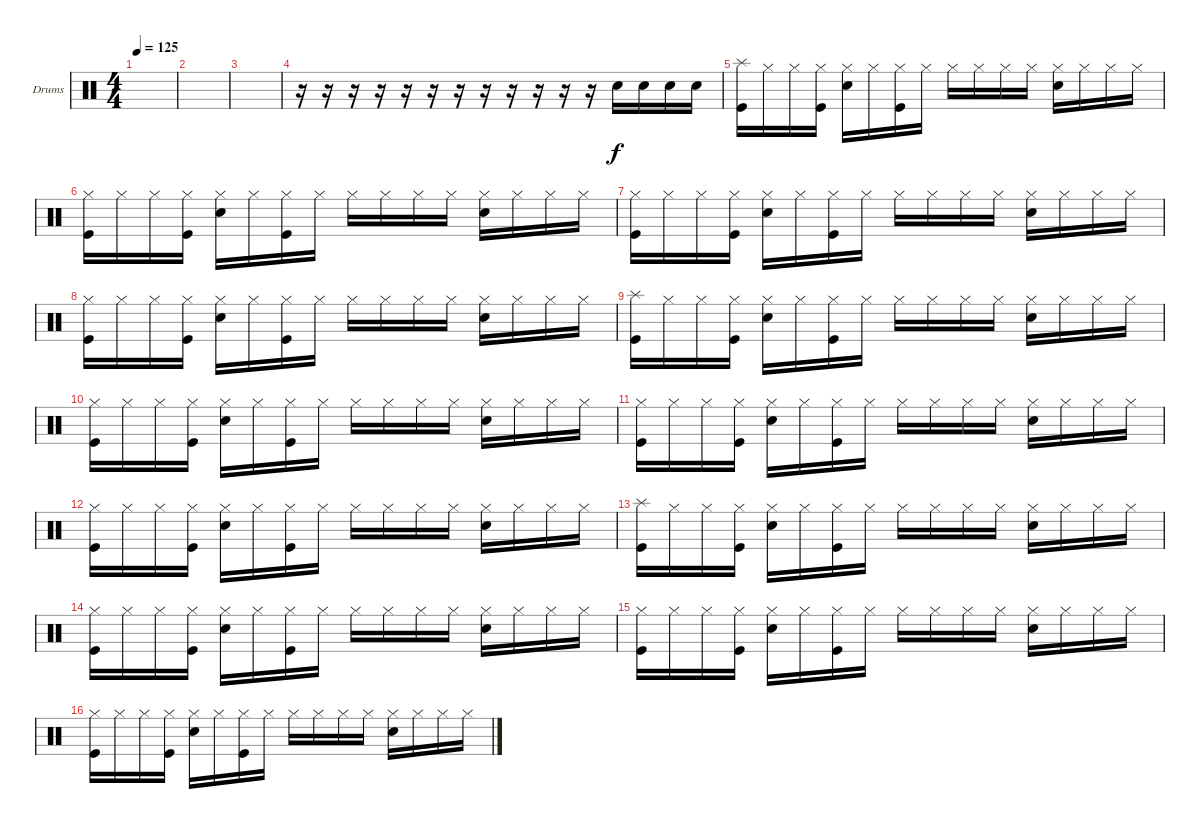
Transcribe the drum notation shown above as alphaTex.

\defaultSystemsLayout 4
\bracketExtendMode groupsimilarinstruments
\firstSystemTrackNameOrientation horizontal
\otherSystemsTrackNameOrientation horizontal
\track ("Ударные" "Drums") {instrument percussion}
\staff {score}
\articulation defaults
\ts (4 4)
\tempo 125
\clef neutral
\ks c
|
|
|
r.16 r.16 r.16 r.16 r.16 r.16 r.16 r.16 r.16 r.16 r.16 r.16 "Snare (hit) 2".16 "Snare (hit) 2".16 "Snare (hit) 2".16 "Snare (hit) 2".16 |
("Splash (hit)" "Kick (hit)").16 "Hi-Hat (closed)".16 "Hi-Hat (closed)".16 ("Hi-Hat (closed)" "Kick (hit)").16 ("Hi-Hat (closed)" "Snare (hit) 2").16 "Hi-Hat (closed)".16 ("Hi-Hat (closed)" "Kick (hit)").16 "Hi-Hat (closed)".16 "Hi-Hat (closed)".16 "Hi-Hat (closed)".16 "Hi-Hat (closed)".16 "Hi-Hat (closed)".16 ("Hi-Hat (closed)" "Snare (hit) 2").16 "Hi-Hat (closed)".16 "Hi-Hat (closed)".16 "Hi-Hat (closed)".16 |
("Kick (hit)" "Hi-Hat (closed)").16 "Hi-Hat (closed)".16 "Hi-Hat (closed)".16 ("Hi-Hat (closed)" "Kick (hit)").16 ("Hi-Hat (closed)" "Snare (hit) 2").16 "Hi-Hat (closed)".16 ("Hi-Hat (closed)" "Kick (hit)").16 "Hi-Hat (closed)".16 "Hi-Hat (closed)".16 "Hi-Hat (closed)".16 "Hi-Hat (closed)".16 "Hi-Hat (closed)".16 ("Hi-Hat (closed)" "Snare (hit) 2").16 "Hi-Hat (closed)".16 "Hi-Hat (closed)".16 "Hi-Hat (closed)".16 |
("Kick (hit)" "Hi-Hat (closed)").16 "Hi-Hat (closed)".16 "Hi-Hat (closed)".16 ("Hi-Hat (closed)" "Kick (hit)").16 ("Hi-Hat (closed)" "Snare (hit) 2").16 "Hi-Hat (closed)".16 ("Hi-Hat (closed)" "Kick (hit)").16 "Hi-Hat (closed)".16 "Hi-Hat (closed)".16 "Hi-Hat (closed)".16 "Hi-Hat (closed)".16 "Hi-Hat (closed)".16 ("Hi-Hat (closed)" "Snare (hit) 2").16 "Hi-Hat (closed)".16 "Hi-Hat (closed)".16 "Hi-Hat (closed)".16 |
("Kick (hit)" "Hi-Hat (closed)").16 "Hi-Hat (closed)".16 "Hi-Hat (closed)".16 ("Hi-Hat (closed)" "Kick (hit)").16 ("Hi-Hat (closed)" "Snare (hit) 2").16 "Hi-Hat (closed)".16 ("Hi-Hat (closed)" "Kick (hit)").16 "Hi-Hat (closed)".16 "Hi-Hat (closed)".16 "Hi-Hat (closed)".16 "Hi-Hat (closed)".16 "Hi-Hat (closed)".16 ("Hi-Hat (closed)" "Snare (hit) 2").16 "Hi-Hat (closed)".16 "Hi-Hat (closed)".16 "Hi-Hat (closed)".16 |
("Splash (hit)" "Kick (hit)").16 "Hi-Hat (closed)".16 "Hi-Hat (closed)".16 ("Hi-Hat (closed)" "Kick (hit)").16 ("Hi-Hat (closed)" "Snare (hit) 2").16 "Hi-Hat (closed)".16 ("Hi-Hat (closed)" "Kick (hit)").16 "Hi-Hat (closed)".16 "Hi-Hat (closed)".16 "Hi-Hat (closed)".16 "Hi-Hat (closed)".16 "Hi-Hat (closed)".16 ("Hi-Hat (closed)" "Snare (hit) 2").16 "Hi-Hat (closed)".16 "Hi-Hat (closed)".16 "Hi-Hat (closed)".16 |
("Kick (hit)" "Hi-Hat (closed)").16 "Hi-Hat (closed)".16 "Hi-Hat (closed)".16 ("Hi-Hat (closed)" "Kick (hit)").16 ("Hi-Hat (closed)" "Snare (hit) 2").16 "Hi-Hat (closed)".16 ("Hi-Hat (closed)" "Kick (hit)").16 "Hi-Hat (closed)".16 "Hi-Hat (closed)".16 "Hi-Hat (closed)".16 "Hi-Hat (closed)".16 "Hi-Hat (closed)".16 ("Hi-Hat (closed)" "Snare (hit) 2").16 "Hi-Hat (closed)".16 "Hi-Hat (closed)".16 "Hi-Hat (closed)".16 |
("Kick (hit)" "Hi-Hat (closed)").16 "Hi-Hat (closed)".16 "Hi-Hat (closed)".16 ("Hi-Hat (closed)" "Kick (hit)").16 ("Hi-Hat (closed)" "Snare (hit) 2").16 "Hi-Hat (closed)".16 ("Hi-Hat (closed)" "Kick (hit)").16 "Hi-Hat (closed)".16 "Hi-Hat (closed)".16 "Hi-Hat (closed)".16 "Hi-Hat (closed)".16 "Hi-Hat (closed)".16 ("Hi-Hat (closed)" "Snare (hit) 2").16 "Hi-Hat (closed)".16 "Hi-Hat (closed)".16 "Hi-Hat (closed)".16 |
("Kick (hit)" "Hi-Hat (closed)").16 "Hi-Hat (closed)".16 "Hi-Hat (closed)".16 ("Hi-Hat (closed)" "Kick (hit)").16 ("Hi-Hat (closed)" "Snare (hit) 2").16 "Hi-Hat (closed)".16 ("Hi-Hat (closed)" "Kick (hit)").16 "Hi-Hat (closed)".16 "Hi-Hat (closed)".16 "Hi-Hat (closed)".16 "Hi-Hat (closed)".16 "Hi-Hat (closed)".16 ("Hi-Hat (closed)" "Snare (hit) 2").16 "Hi-Hat (closed)".16 "Hi-Hat (closed)".16 "Hi-Hat (closed)".16 |
("Splash (hit)" "Kick (hit)").16 "Hi-Hat (closed)".16 "Hi-Hat (closed)".16 ("Hi-Hat (closed)" "Kick (hit)").16 ("Hi-Hat (closed)" "Snare (hit) 2").16 "Hi-Hat (closed)".16 ("Hi-Hat (closed)" "Kick (hit)").16 "Hi-Hat (closed)".16 "Hi-Hat (closed)".16 "Hi-Hat (closed)".16 "Hi-Hat (closed)".16 "Hi-Hat (closed)".16 ("Hi-Hat (closed)" "Snare (hit) 2").16 "Hi-Hat (closed)".16 "Hi-Hat (closed)".16 "Hi-Hat (closed)".16 |
("Kick (hit)" "Hi-Hat (closed)").16 "Hi-Hat (closed)".16 "Hi-Hat (closed)".16 ("Hi-Hat (closed)" "Kick (hit)").16 ("Hi-Hat (closed)" "Snare (hit) 2").16 "Hi-Hat (closed)".16 ("Hi-Hat (closed)" "Kick (hit)").16 "Hi-Hat (closed)".16 "Hi-Hat (closed)".16 "Hi-Hat (closed)".16 "Hi-Hat (closed)".16 "Hi-Hat (closed)".16 ("Hi-Hat (closed)" "Snare (hit) 2").16 "Hi-Hat (closed)".16 "Hi-Hat (closed)".16 "Hi-Hat (closed)".16 |
("Kick (hit)" "Hi-Hat (closed)").16 "Hi-Hat (closed)".16 "Hi-Hat (closed)".16 ("Hi-Hat (closed)" "Kick (hit)").16 ("Hi-Hat (closed)" "Snare (hit) 2").16 "Hi-Hat (closed)".16 ("Hi-Hat (closed)" "Kick (hit)").16 "Hi-Hat (closed)".16 "Hi-Hat (closed)".16 "Hi-Hat (closed)".16 "Hi-Hat (closed)".16 "Hi-Hat (closed)".16 ("Hi-Hat (closed)" "Snare (hit) 2").16 "Hi-Hat (closed)".16 "Hi-Hat (closed)".16 "Hi-Hat (closed)".16 |
("Kick (hit)" "Hi-Hat (closed)").16 "Hi-Hat (closed)".16 "Hi-Hat (closed)".16 ("Hi-Hat (closed)" "Kick (hit)").16 ("Hi-Hat (closed)" "Snare (hit) 2").16 "Hi-Hat (closed)".16 ("Hi-Hat (closed)" "Kick (hit)").16 "Hi-Hat (closed)".16 "Hi-Hat (closed)".16 "Hi-Hat (closed)".16 "Hi-Hat (closed)".16 "Hi-Hat (closed)".16 ("Hi-Hat (closed)" "Snare (hit) 2").16 "Hi-Hat (closed)".16 "Hi-Hat (closed)".16 "Hi-Hat (closed)".16
